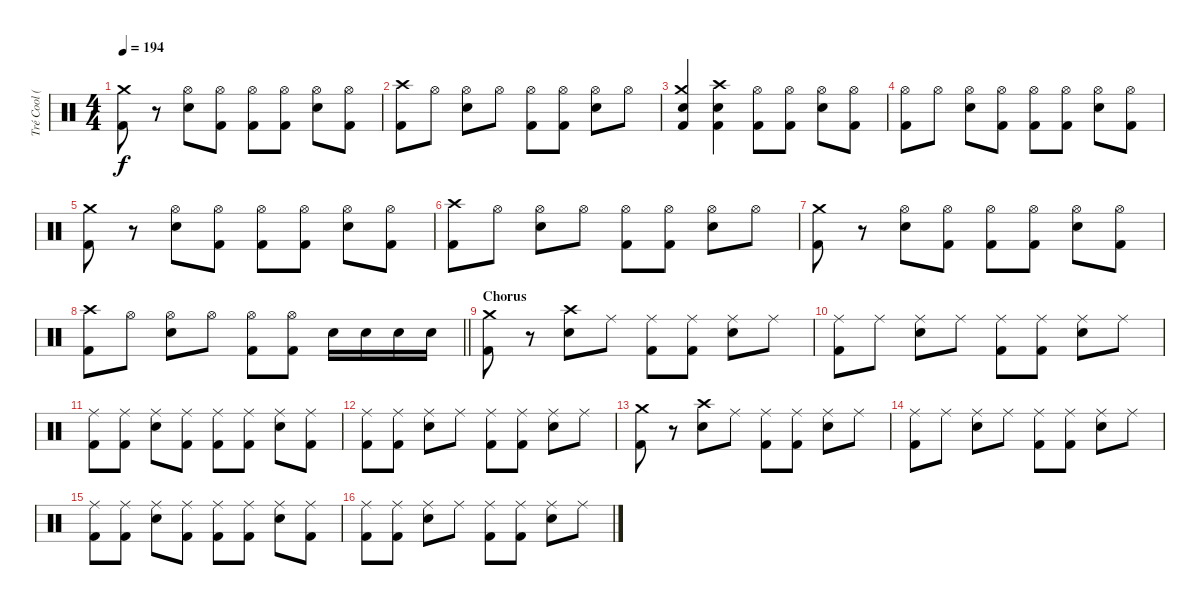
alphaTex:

\track ("Tré Cool (Drums)" "Tré Cool (") {instrument percussion}
\staff {score}
\articulation defaults
\ts (4 4)
\tempo 194
\clef neutral
\ks c
("Kick (hit) 2" "Crash medium (hit)").8{dy f} r.8 ("Snare (hit) 2" "Hi-Hat (open)").8 ("Kick (hit) 2" "Hi-Hat (open)").8 ("Kick (hit) 2" "Hi-Hat (open)").8 ("Kick (hit) 2" "Hi-Hat (open)").8 ("Snare (hit) 2" "Hi-Hat (open)").8 ("Kick (hit) 2" "Hi-Hat (open)").8 |
("Kick (hit) 2" "Crash high (hit)").8 "Hi-Hat (open)".8 ("Snare (hit) 2" "Hi-Hat (open)").8 "Hi-Hat (open)".8 ("Kick (hit) 2" "Hi-Hat (open)").8 ("Kick (hit) 2" "Hi-Hat (open)").8 ("Snare (hit) 2" "Hi-Hat (open)").8 "Hi-Hat (open)".8 |
("Kick (hit) 2" "Snare (hit) 2" "Crash medium (hit)").4 ("Kick (hit) 2" "Snare (hit) 2" "Crash high (hit)").4 ("Kick (hit) 2" "Hi-Hat (open)").8 ("Kick (hit) 2" "Hi-Hat (open)").8 ("Snare (hit) 2" "Hi-Hat (open)").8 ("Kick (hit) 2" "Hi-Hat (open)").8 |
("Kick (hit) 2" "Hi-Hat (open)").8 "Hi-Hat (open)".8 ("Snare (hit) 2" "Hi-Hat (open)").8 ("Kick (hit) 2" "Hi-Hat (open)").8 ("Kick (hit) 2" "Hi-Hat (open)").8 ("Kick (hit) 2" "Hi-Hat (open)").8 ("Snare (hit) 2" "Hi-Hat (open)").8 ("Kick (hit) 2" "Hi-Hat (open)").8 |
("Kick (hit) 2" "Crash medium (hit)").8 r.8 ("Snare (hit) 2" "Hi-Hat (open)").8 ("Kick (hit) 2" "Hi-Hat (open)").8 ("Kick (hit) 2" "Hi-Hat (open)").8 ("Kick (hit) 2" "Hi-Hat (open)").8 ("Snare (hit) 2" "Hi-Hat (open)").8 ("Kick (hit) 2" "Hi-Hat (open)").8 |
("Kick (hit) 2" "Crash high (hit)").8 "Hi-Hat (open)".8 ("Snare (hit) 2" "Hi-Hat (open)").8 "Hi-Hat (open)".8 ("Kick (hit) 2" "Hi-Hat (open)").8 ("Kick (hit) 2" "Hi-Hat (open)").8 ("Snare (hit) 2" "Hi-Hat (open)").8 "Hi-Hat (open)".8 |
("Kick (hit) 2" "Crash medium (hit)").8 r.8 ("Snare (hit) 2" "Hi-Hat (open)").8 ("Kick (hit) 2" "Hi-Hat (open)").8 ("Kick (hit) 2" "Hi-Hat (open)").8 ("Kick (hit) 2" "Hi-Hat (open)").8 ("Snare (hit) 2" "Hi-Hat (open)").8 ("Kick (hit) 2" "Hi-Hat (open)").8 |
\barLineRight lightlight
("Kick (hit) 2" "Crash high (hit)").8 "Hi-Hat (open)".8 ("Snare (hit) 2" "Hi-Hat (open)").8 "Hi-Hat (open)".8 ("Kick (hit) 2" "Hi-Hat (open)").8 ("Kick (hit) 2" "Hi-Hat (open)").8 "Snare (hit) 2".16 "Snare (hit) 2".16 "Snare (hit) 2".16 "Snare (hit) 2".16 |
\section ("" "Chorus")
("Kick (hit) 2" "Crash medium (hit)").8 r.8 ("Snare (hit) 2" "Crash high (hit)").8 "Ride (middle)".8 ("Kick (hit) 2" "Ride (middle)").8 ("Kick (hit) 2" "Ride (middle)").8 ("Snare (hit) 2" "Ride (middle)").8 "Ride (middle)".8 |
("Kick (hit) 2" "Ride (middle)").8 "Ride (middle)".8 ("Snare (hit) 2" "Ride (middle)").8 "Ride (middle)".8 ("Kick (hit) 2" "Ride (middle)").8 ("Kick (hit) 2" "Ride (middle)").8 ("Snare (hit) 2" "Ride (middle)").8 "Ride (middle)".8 |
("Kick (hit) 2" "Ride (middle)").8 ("Kick (hit) 2" "Ride (middle)").8 ("Snare (hit) 2" "Ride (middle)").8 ("Kick (hit) 2" "Ride (middle)").8 ("Kick (hit) 2" "Ride (middle)").8 ("Kick (hit) 2" "Ride (middle)").8 ("Snare (hit) 2" "Ride (middle)").8 ("Kick (hit) 2" "Ride (middle)").8 |
("Kick (hit) 2" "Ride (middle)").8 ("Kick (hit) 2" "Ride (middle)").8 ("Snare (hit) 2" "Ride (middle)").8 "Ride (middle)".8 ("Kick (hit) 2" "Ride (middle)").8 ("Kick (hit) 2" "Ride (middle)").8 ("Snare (hit) 2" "Ride (middle)").8 "Ride (middle)".8 |
("Kick (hit) 2" "Crash medium (hit)").8 r.8 ("Snare (hit) 2" "Crash high (hit)").8 "Ride (middle)".8 ("Kick (hit) 2" "Ride (middle)").8 ("Kick (hit) 2" "Ride (middle)").8 ("Snare (hit) 2" "Ride (middle)").8 "Ride (middle)".8 |
("Kick (hit) 2" "Ride (middle)").8 "Ride (middle)".8 ("Snare (hit) 2" "Ride (middle)").8 "Ride (middle)".8 ("Kick (hit) 2" "Ride (middle)").8 ("Kick (hit) 2" "Ride (middle)").8 ("Snare (hit) 2" "Ride (middle)").8 "Ride (middle)".8 |
("Kick (hit) 2" "Ride (middle)").8 ("Kick (hit) 2" "Ride (middle)").8 ("Snare (hit) 2" "Ride (middle)").8 ("Kick (hit) 2" "Ride (middle)").8 ("Kick (hit) 2" "Ride (middle)").8 ("Kick (hit) 2" "Ride (middle)").8 ("Snare (hit) 2" "Ride (middle)").8 ("Kick (hit) 2" "Ride (middle)").8 |
("Kick (hit) 2" "Ride (middle)").8 ("Kick (hit) 2" "Ride (middle)").8 ("Snare (hit) 2" "Ride (middle)").8 "Ride (middle)".8 ("Kick (hit) 2" "Ride (middle)").8 ("Kick (hit) 2" "Ride (middle)").8 ("Snare (hit) 2" "Ride (middle)").8 "Ride (middle)".8
